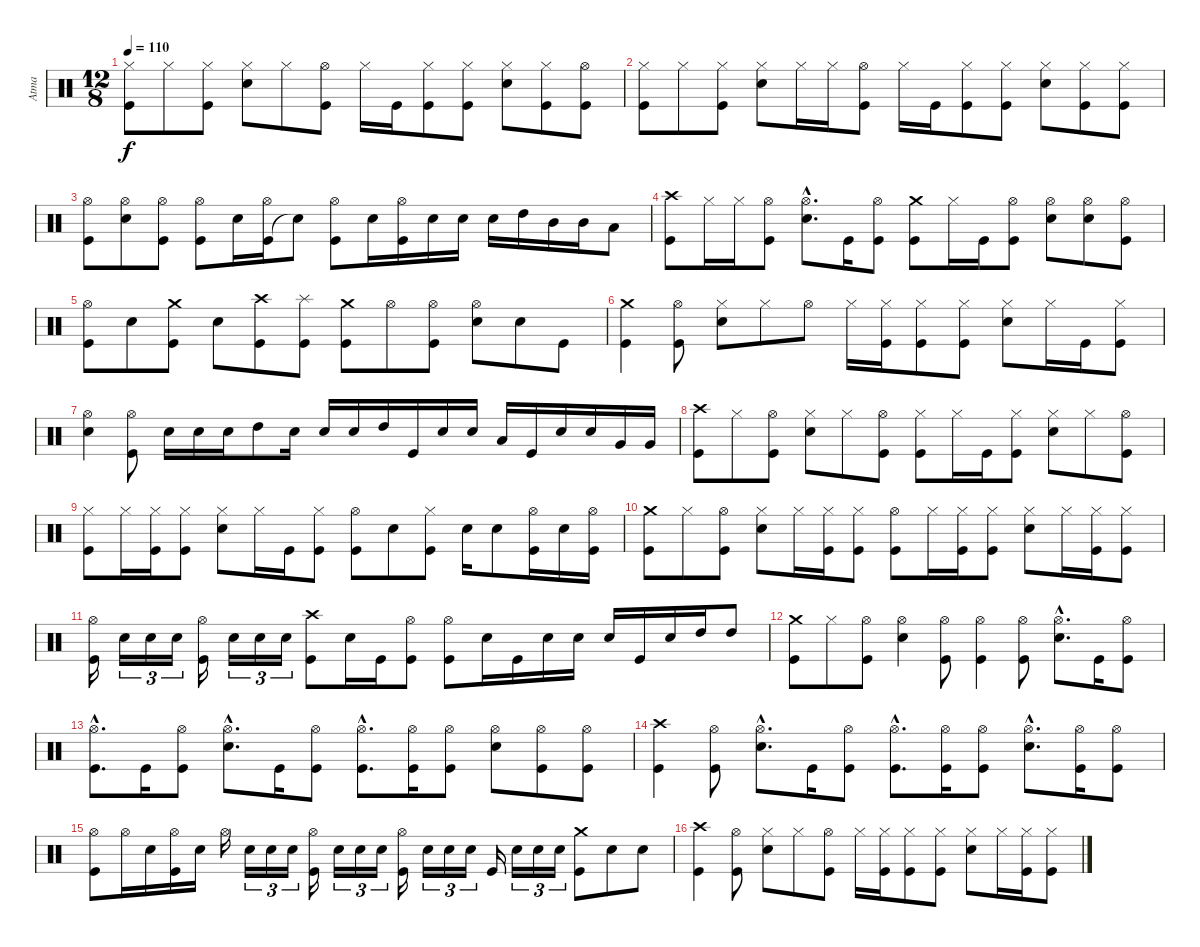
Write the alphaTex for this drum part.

\track ("Atma" "Atma") {instrument percussion}
\staff {score}
\articulation defaults
\ts (12 8)
\tempo 110
\clef neutral
\ks c
("Kick (hit)" "Hi-Hat (closed)").8{dy f} "Hi-Hat (closed)".8 ("Kick (hit)" "Hi-Hat (closed)").8 ("Snare (hit) 2" "Hi-Hat (closed)").8 "Hi-Hat (closed)".8 ("Kick (hit)" "Hi-Hat (open)").8 "Hi-Hat (closed)".16 "Kick (hit)".16 ("Kick (hit)" "Hi-Hat (closed)").8 ("Kick (hit)" "Hi-Hat (closed)").8 ("Snare (hit) 2" "Hi-Hat (closed)").8 ("Kick (hit)" "Hi-Hat (closed)").8 ("Kick (hit)" "Hi-Hat (open)").8 |
("Kick (hit)" "Hi-Hat (closed)").8 "Hi-Hat (closed)".8 ("Kick (hit)" "Hi-Hat (closed)").8 ("Snare (hit) 2" "Hi-Hat (closed)").8 "Hi-Hat (closed)".16 "Hi-Hat (closed)".16 ("Kick (hit)" "Hi-Hat (open)").8 "Hi-Hat (closed)".16 "Kick (hit)".16 ("Kick (hit)" "Hi-Hat (closed)").8 ("Kick (hit)" "Hi-Hat (closed)").8 ("Snare (hit) 2" "Hi-Hat (closed)").8 ("Kick (hit)" "Hi-Hat (closed)").8 ("Kick (hit)" "Hi-Hat (closed)").8 |
("Kick (hit)" "Hi-Hat (open)").8 ("Snare (hit) 2" "Hi-Hat (open)").8 ("Kick (hit)" "Hi-Hat (open)").8 ("Kick (hit)" "Hi-Hat (open)").8 "Snare (hit) 2".16 ("Kick (hit)" "Hi-Hat (open)").16 "Snare (hit)"{t}.8 ("Kick (hit)" "Hi-Hat (open)").8 "Snare (hit) 2".16 ("Kick (hit)" "Hi-Hat (open)").16 "Snare (hit) 2".16 "Snare (hit) 2".16 "Snare (hit) 2".16 "High Tom (hit)".16 "Mid Tom (hit)".16 "Mid Tom (hit)".16 "Low Tom (hit)".8 |
("Kick (hit)" "Crash high (hit)").8 "Hi-Hat (closed)".16 "Hi-Hat (closed)".16 ("Kick (hit)" "Hi-Hat (open)").8 ("Snare (hit) 2"{hac} "Hi-Hat (open)"{hac}).8{d} "Kick (hit)".16 ("Kick (hit)" "Hi-Hat (open)").8 ("Kick (hit)" "Crash medium (hit)").8 "Hi-Hat (closed)".16 "Kick (hit)".16 ("Kick (hit)" "Hi-Hat (open)").8 ("Snare (hit) 2" "Hi-Hat (open)").8 ("Snare (hit) 2" "Hi-Hat (open)").8 ("Kick (hit)" "Hi-Hat (open)").8 |
("Kick (hit)" "Hi-Hat (open)").8 "Snare (hit) 2".8 ("Kick (hit)" "Crash medium (hit)").8 "Snare (hit) 2".8 ("Kick (hit)" "Crash high (hit)").8 ("Kick (hit)" "Splash (hit)").8 ("Kick (hit)" "Crash medium (hit)").8 "Hi-Hat (open)".8 ("Kick (hit)" "Hi-Hat (open)").8 ("Snare (hit) 2" "Hi-Hat (open)").8 "Snare (hit) 2".8 "Kick (hit)".8 |
("Kick (hit)" "Crash medium (hit)").4 ("Kick (hit)" "Hi-Hat (open)").8 ("Snare (hit) 2" "Hi-Hat (closed)").8 "Hi-Hat (closed)".8 "Hi-Hat (open)".8 "Hi-Hat (closed)".16 ("Kick (hit)" "Hi-Hat (closed)").16 ("Kick (hit)" "Hi-Hat (closed)").8 ("Kick (hit)" "Hi-Hat (closed)").8 ("Snare (hit) 2" "Hi-Hat (closed)").8 "Hi-Hat (closed)".16 "Kick (hit)".16 ("Kick (hit)" "Hi-Hat (closed)").8 |
("Snare (hit) 2" "Hi-Hat (open)").4 ("Kick (hit)" "Hi-Hat (open)").8 "Snare (hit) 2".16 "Snare (hit) 2".16 "Snare (hit) 2".16 "High Tom (hit)".8 "Snare (hit) 2".16 "Snare (hit) 2".16 "Snare (hit) 2".16 "High Tom (hit)".16 "Kick (hit)".16 "Snare (hit) 2".16 "Snare (hit) 2".16 "Low Tom (hit)".16 "Kick (hit)".16 "Snare (hit) 2".16 "Snare (hit) 2".16 "Very Low Tom (hit)".16 "Very Low Tom (hit)".16 |
("Kick (hit)" "Crash high (hit)").8 "Hi-Hat (closed)".8 ("Kick (hit)" "Hi-Hat (open)").8 ("Snare (hit) 2" "Hi-Hat (closed)").8 "Hi-Hat (closed)".8 ("Kick (hit)" "Hi-Hat (open)").8 ("Kick (hit)" "Hi-Hat (closed)").8 "Hi-Hat (closed)".16 "Kick (hit)".16 ("Kick (hit)" "Hi-Hat (closed)").8 ("Snare (hit) 2" "Hi-Hat (closed)").8 "Hi-Hat (closed)".8 ("Kick (hit)" "Hi-Hat (open)").8 |
("Kick (hit)" "Hi-Hat (closed)").8 "Hi-Hat (closed)".16 ("Kick (hit)" "Hi-Hat (closed)").16 ("Kick (hit)" "Hi-Hat (closed)").8 ("Snare (hit) 2" "Hi-Hat (closed)").8 "Hi-Hat (closed)".16 "Kick (hit)".16 ("Kick (hit)" "Hi-Hat (closed)").8 ("Kick (hit)" "Hi-Hat (open)").8 "Snare (hit) 2".8 ("Kick (hit)" "Hi-Hat (closed)").8 "Snare (hit) 2".16 "Snare (hit) 2".8 ("Kick (hit)" "Hi-Hat (open)").16 "Snare (hit) 2".16 ("Kick (hit)" "Hi-Hat (open)").16 |
("Kick (hit)" "Crash medium (hit)").8 "Hi-Hat (closed)".8 ("Kick (hit)" "Hi-Hat (open)").8 ("Snare (hit) 2" "Hi-Hat (closed)").8 "Hi-Hat (closed)".16 ("Kick (hit)" "Hi-Hat (closed)").16 ("Kick (hit)" "Hi-Hat (closed)").8 ("Kick (hit)" "Hi-Hat (open)").8 "Hi-Hat (closed)".16 ("Kick (hit)" "Hi-Hat (closed)").16 ("Kick (hit)" "Hi-Hat (closed)").8 ("Snare (hit) 2" "Hi-Hat (closed)").8 "Hi-Hat (closed)".16 ("Kick (hit)" "Hi-Hat (closed)").16 ("Kick (hit)" "Hi-Hat (closed)").8 |
("Kick (hit)" "Hi-Hat (open)").16 "Snare (hit) 2".16{tu (3 2)} "Snare (hit) 2".16{tu (3 2)} "Snare (hit) 2".16{tu (3 2)} ("Kick (hit)" "Hi-Hat (open)").16 "Snare (hit) 2".16{tu (3 2)} "Snare (hit) 2".16{tu (3 2)} "Snare (hit) 2".16{tu (3 2)} ("Kick (hit)" "Crash high (hit)").8 "Snare (hit) 2".16 "Kick (hit)".16 ("Kick (hit)" "Hi-Hat (open)").8 ("Kick (hit)" "Hi-Hat (open)").8 "Snare (hit) 2".16 "Kick (hit)".16 "Snare (hit) 2".16 "Snare (hit) 2".16 "Snare (hit) 2".16 "Kick (hit)".16 "Snare (hit) 2".16 "High Tom (hit)".16 "High Tom (hit)".8 |
("Kick (hit)" "Crash medium (hit)").8 "Hi-Hat (closed)".8 ("Kick (hit)" "Hi-Hat (open)").8 ("Snare (hit) 2" "Hi-Hat (open)").4 ("Kick (hit)" "Hi-Hat (open)").8 ("Kick (hit)" "Hi-Hat (open)").4 ("Kick (hit)" "Hi-Hat (open)").8 ("Snare (hit) 2"{hac} "Hi-Hat (open)"{hac}).8{d} "Kick (hit)".16 ("Kick (hit)" "Hi-Hat (open)").8 |
("Kick (hit)"{hac} "Hi-Hat (open)"{hac}).8{d} "Kick (hit)".16 ("Kick (hit)" "Hi-Hat (open)").8 ("Snare (hit) 2"{hac} "Hi-Hat (open)"{hac}).8{d} "Kick (hit)".16 ("Kick (hit)" "Hi-Hat (open)").8 ("Kick (hit)"{hac} "Hi-Hat (open)"{hac}).8{d} ("Kick (hit)" "Hi-Hat (open)").16 ("Kick (hit)" "Hi-Hat (open)").8 ("Snare (hit) 2" "Hi-Hat (open)").8 ("Kick (hit)" "Hi-Hat (open)").8 ("Kick (hit)" "Hi-Hat (open)").8 |
("Kick (hit)" "Crash high (hit)").4 ("Kick (hit)" "Hi-Hat (open)").8 ("Snare (hit) 2"{hac} "Hi-Hat (open)"{hac}).8{d} "Kick (hit)".16 ("Kick (hit)" "Hi-Hat (open)").8 ("Kick (hit)"{hac} "Hi-Hat (open)"{hac}).8{d} ("Kick (hit)" "Hi-Hat (open)").16 ("Kick (hit)" "Hi-Hat (open)").8 ("Snare (hit) 2"{hac} "Hi-Hat (open)"{hac}).8{d} ("Kick (hit)" "Hi-Hat (open)").16 ("Kick (hit)" "Hi-Hat (open)").8 |
("Kick (hit)" "Hi-Hat (open)").8 "Hi-Hat (open)".16 "Snare (hit) 2".16 ("Kick (hit)" "Hi-Hat (open)").16 "Snare (hit) 2".16 "Hi-Hat (open)".16 "Snare (hit) 2".16{tu (3 2)} "Snare (hit) 2".16{tu (3 2)} "Snare (hit) 2".16{tu (3 2)} ("Kick (hit)" "Hi-Hat (open)").16 "Snare (hit) 2".16{tu (3 2)} "Snare (hit) 2".16{tu (3 2)} "Snare (hit) 2".16{tu (3 2)} ("Kick (hit)" "Hi-Hat (open)").16 "Snare (hit) 2".16{tu (3 2)} "Snare (hit) 2".16{tu (3 2)} "Snare (hit) 2".16{tu (3 2)} "Kick (hit)".16 "Snare (hit) 2".16{tu (3 2)} "Snare (hit) 2".16{tu (3 2)} "Snare (hit) 2".16{tu (3 2)} ("Kick (hit)" "Crash medium (hit)").8 "Snare (hit) 2".8 "Snare (hit) 2".8 |
("Kick (hit)" "Crash high (hit)").4 ("Kick (hit)" "Hi-Hat (open)").8 ("Snare (hit) 2" "Hi-Hat (closed)").8 "Hi-Hat (closed)".8 ("Kick (hit)" "Hi-Hat (open)").8 "Hi-Hat (closed)".16 ("Kick (hit)" "Hi-Hat (closed)").16 ("Kick (hit)" "Hi-Hat (closed)").8 ("Kick (hit)" "Hi-Hat (closed)").8 ("Snare (hit) 2" "Hi-Hat (closed)").8 "Hi-Hat (closed)".16 ("Kick (hit)" "Hi-Hat (closed)").16 ("Kick (hit)" "Hi-Hat (closed)").8
